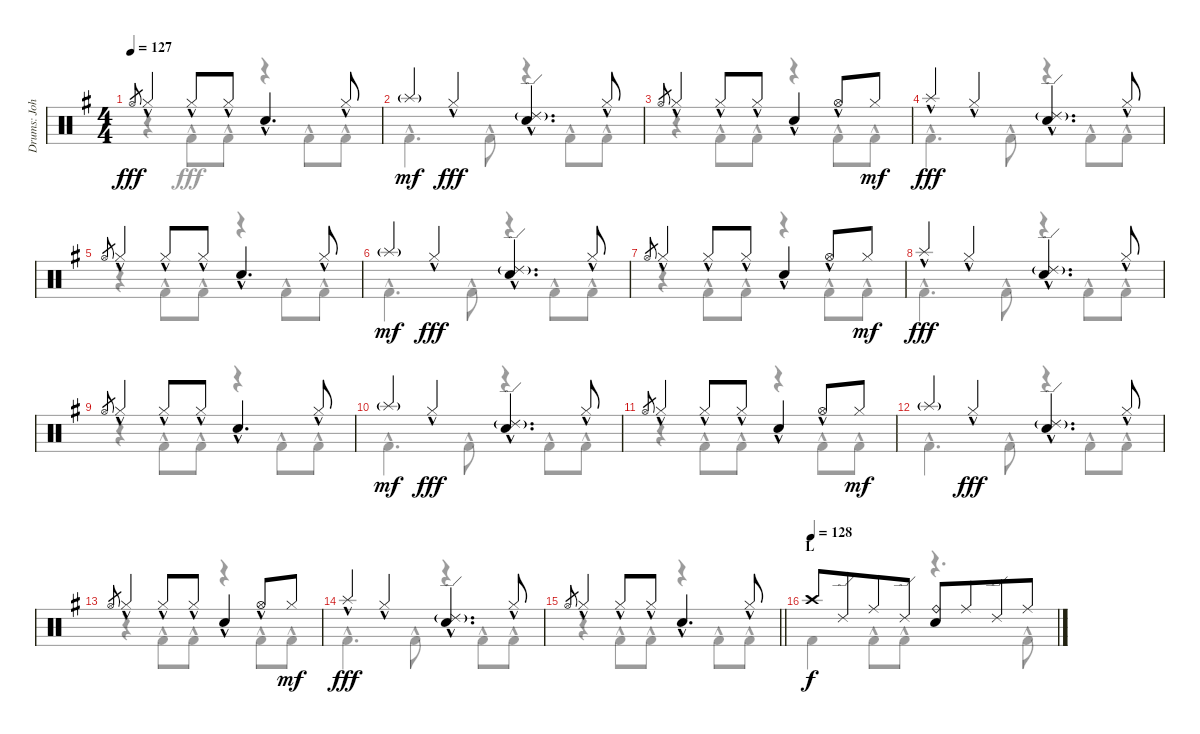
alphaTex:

\track ("Drums: John" "Drums: Joh") {instrument percussion}
\staff {score}
\articulation defaults
\voice
\ts (4 4)
\tempo 127
\clef neutral
\ks g "Hi-Hat (open)".8{gr dy fff} "Hi-Hat (closed)"{hac}.4 "Hi-Hat (closed)"{hac}.8 "Hi-Hat (closed)"{hac}.8 "Electric Snare (hit)"{hac}.4{d} "Hi-Hat (closed)"{hac}.8
|
"Splash (hit)"{g}.4{dy mf} "Hi-Hat (closed)"{hac}.4{dy fff} ("Ride (edge) 2"{g} "Electric Snare (hit)"{hac}).4{d} "Hi-Hat (closed)"{hac}.8 |
"Hi-Hat (open)".8{gr} "Hi-Hat (closed)"{hac}.4 "Hi-Hat (closed)"{hac}.8 "Hi-Hat (closed)"{hac}.8 "Electric Snare (hit)"{hac}.4 "Hi-Hat (open)"{hac}.8 "Hi-Hat (closed)".8{dy mf} |
"Splash (hit)"{hac}.4{dy fff} "Hi-Hat (closed)"{hac}.4 ("Ride (edge) 2"{g} "Electric Snare (hit)"{hac}).4{d} "Hi-Hat (closed)"{hac}.8 |
"Hi-Hat (open)".8{gr} "Hi-Hat (closed)"{hac}.4 "Hi-Hat (closed)"{hac}.8 "Hi-Hat (closed)"{hac}.8 "Electric Snare (hit)"{hac}.4{d} "Hi-Hat (closed)"{hac}.8 |
"Splash (hit)"{g}.4{dy mf} "Hi-Hat (closed)"{hac}.4{dy fff} ("Ride (edge) 2"{g} "Electric Snare (hit)"{hac}).4{d} "Hi-Hat (closed)"{hac}.8 |
"Hi-Hat (open)".8{gr} "Hi-Hat (closed)"{hac}.4 "Hi-Hat (closed)"{hac}.8 "Hi-Hat (closed)"{hac}.8 "Electric Snare (hit)"{hac}.4 "Hi-Hat (open)"{hac}.8 "Hi-Hat (closed)".8{dy mf} |
"Splash (hit)"{hac}.4{dy fff} "Hi-Hat (closed)"{hac}.4 ("Ride (edge) 2"{g} "Electric Snare (hit)"{hac}).4{d} "Hi-Hat (closed)"{hac}.8 |
"Hi-Hat (open)".8{gr} "Hi-Hat (closed)"{hac}.4 "Hi-Hat (closed)"{hac}.8 "Hi-Hat (closed)"{hac}.8 "Electric Snare (hit)"{hac}.4{d} "Hi-Hat (closed)"{hac}.8 |
"Splash (hit)"{g}.4{dy mf} "Hi-Hat (closed)"{hac}.4{dy fff} ("Ride (edge) 2"{g} "Electric Snare (hit)"{hac}).4{d} "Hi-Hat (closed)"{hac}.8 |
"Hi-Hat (open)".8{gr} "Hi-Hat (closed)"{hac}.4 "Hi-Hat (closed)"{hac}.8 "Hi-Hat (closed)"{hac}.8 "Electric Snare (hit)"{hac}.4 "Hi-Hat (open)"{hac}.8 "Hi-Hat (closed)".8{dy mf} |
"Splash (hit)"{g}.4 "Hi-Hat (closed)"{hac}.4{dy fff} ("Ride (edge) 2"{g} "Electric Snare (hit)"{hac}).4{d} "Hi-Hat (closed)"{hac}.8 |
"Hi-Hat (open)".8{gr} "Hi-Hat (closed)"{hac}.4 "Hi-Hat (closed)"{hac}.8 "Hi-Hat (closed)"{hac}.8 "Electric Snare (hit)"{hac}.4 "Hi-Hat (open)"{hac}.8 "Hi-Hat (closed)".8{dy mf} |
"Splash (hit)"{hac}.4{dy fff} "Hi-Hat (closed)"{hac}.4 ("Ride (edge) 2"{g} "Electric Snare (hit)"{hac}).4{d} "Hi-Hat (closed)"{hac}.8 |
\barLineRight lightlight "Hi-Hat (open)".8{gr} "Hi-Hat (closed)"{hac}.4 "Hi-Hat (closed)"{hac}.8 "Hi-Hat (closed)"{hac}.8 "Electric Snare (hit)"{hac}.4{d} "Hi-Hat (closed)"{hac}.8
|
\section ("" "L")
\tempo (128)
"Crash high (hit)".8{dy f} "Ride (edge) 2".8{beam merge} "Ride (middle)".8 "Ride (edge) 2".8 ("Ride (bell)" "Electric Snare (hit)").8 "Ride (middle)".8{beam merge} "Ride (edge) 2".8 "Ride (middle)".8
\voice
\clef neutral
\ottava regular
\simile none
\ks g
r.4{dy fff} "Kick (hit) 2"{hac}.8 "Kick (hit) 2"{hac}.8 r.4 "Kick (hit) 2"{hac}.8 "Kick (hit) 2"{hac}.8 |
"Kick (hit) 2"{hac}.4{d} "Kick (hit) 2"{hac}.8 r.4 "Kick (hit) 2"{hac}.8 "Kick (hit) 2"{hac}.8 |
r.4 "Kick (hit) 2"{hac}.8 "Kick (hit) 2"{hac}.8 r.4 "Kick (hit) 2"{hac}.8 "Kick (hit) 2"{hac}.8 |
"Kick (hit) 2"{hac}.4{d} "Kick (hit) 2"{hac}.8 r.4 "Kick (hit) 2"{hac}.8 "Kick (hit) 2"{hac}.8 |
r.4 "Kick (hit) 2"{hac}.8 "Kick (hit) 2"{hac}.8 r.4 "Kick (hit) 2"{hac}.8 "Kick (hit) 2"{hac}.8 |
"Kick (hit) 2"{hac}.4{d} "Kick (hit) 2"{hac}.8 r.4 "Kick (hit) 2"{hac}.8 "Kick (hit) 2"{hac}.8 |
r.4 "Kick (hit) 2"{hac}.8 "Kick (hit) 2"{hac}.8 r.4 "Kick (hit) 2"{hac}.8 "Kick (hit) 2"{hac}.8 |
"Kick (hit) 2"{hac}.4{d} "Kick (hit) 2"{hac}.8 r.4 "Kick (hit) 2"{hac}.8 "Kick (hit) 2"{hac}.8 |
r.4 "Kick (hit) 2"{hac}.8 "Kick (hit) 2"{hac}.8 r.4 "Kick (hit) 2"{hac}.8 "Kick (hit) 2"{hac}.8 |
"Kick (hit) 2"{hac}.4{d} "Kick (hit) 2"{hac}.8 r.4 "Kick (hit) 2"{hac}.8 "Kick (hit) 2"{hac}.8 |
r.4 "Kick (hit) 2"{hac}.8 "Kick (hit) 2"{hac}.8 r.4 "Kick (hit) 2"{hac}.8 "Kick (hit) 2"{hac}.8 |
"Kick (hit) 2"{hac}.4{d} "Kick (hit) 2"{hac}.8 r.4 "Kick (hit) 2"{hac}.8 "Kick (hit) 2"{hac}.8 |
r.4 "Kick (hit) 2"{hac}.8 "Kick (hit) 2"{hac}.8 r.4 "Kick (hit) 2"{hac}.8 "Kick (hit) 2"{hac}.8 |
"Kick (hit) 2"{hac}.4{d} "Kick (hit) 2"{hac}.8 r.4 "Kick (hit) 2"{hac}.8 "Kick (hit) 2"{hac}.8 |
\barLineRight lightlight
r.4 "Kick (hit) 2"{hac}.8 "Kick (hit) 2"{hac}.8 r.4 "Kick (hit) 2"{hac}.8 "Kick (hit) 2"{hac}.8 |
"Kick (hit) 2".4 "Kick (hit) 2"{hac}.8 "Kick (hit) 2"{hac}.8 r.4{d} "Kick (hit) 2"{hac}.8
